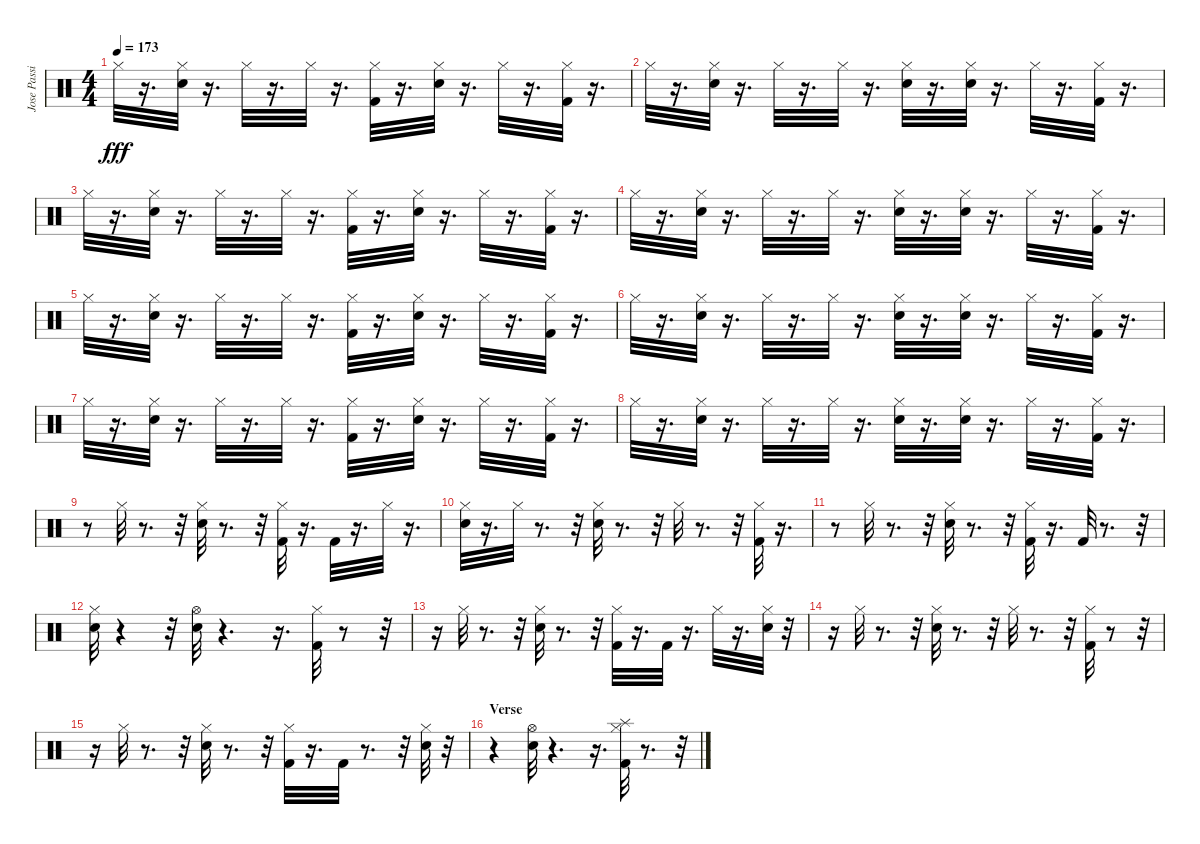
\track ("Jose Passilas-Drums" "Jose Passi") {instrument percussion}
\staff {score}
\articulation defaults
\ts (4 4)
\tempo 173
\clef neutral
\ks c "Hi-Hat (closed)".32{dy fff}
r.16{d} ("Hi-Hat (closed)" "Electric Snare (hit)").32 r.16{d} "Hi-Hat (closed)".32 r.16{d} "Hi-Hat (closed)".32 r.16{d} ("Hi-Hat (closed)" "Kick (hit) 2").32 r.16{d} ("Hi-Hat (closed)" "Electric Snare (hit)").32 r.16{d} "Hi-Hat (closed)".32 r.16{d} ("Hi-Hat (closed)" "Kick (hit) 2").32 r.16{d} |
"Hi-Hat (closed)".32 r.16{d} ("Hi-Hat (closed)" "Electric Snare (hit)").32 r.16{d} "Hi-Hat (closed)".32 r.16{d} "Hi-Hat (closed)".32 r.16{d} ("Hi-Hat (closed)" "Electric Snare (hit)").32 r.16{d} ("Hi-Hat (closed)" "Electric Snare (hit)").32 r.16{d} "Hi-Hat (closed)".32 r.16{d} ("Hi-Hat (closed)" "Kick (hit) 2").32 r.16{d} |
"Hi-Hat (closed)".32 r.16{d} ("Electric Snare (hit)" "Hi-Hat (closed)").32 r.16{d} "Hi-Hat (closed)".32 r.16{d} "Hi-Hat (closed)".32 r.16{d} ("Kick (hit) 2" "Hi-Hat (closed)").32 r.16{d} ("Electric Snare (hit)" "Hi-Hat (closed)").32 r.16{d} "Hi-Hat (closed)".32 r.16{d} ("Kick (hit) 2" "Hi-Hat (closed)").32 r.16{d} |
"Hi-Hat (closed)".32 r.16{d} ("Electric Snare (hit)" "Hi-Hat (closed)").32 r.16{d} "Hi-Hat (closed)".32 r.16{d} "Hi-Hat (closed)".32 r.16{d} ("Electric Snare (hit)" "Hi-Hat (closed)").32 r.16{d} ("Electric Snare (hit)" "Hi-Hat (closed)").32 r.16{d} "Hi-Hat (closed)".32 r.16{d} ("Kick (hit) 2" "Hi-Hat (closed)").32 r.16{d} |
"Hi-Hat (closed)".32 r.16{d} ("Electric Snare (hit)" "Hi-Hat (closed)").32 r.16{d} "Hi-Hat (closed)".32 r.16{d} "Hi-Hat (closed)".32 r.16{d} ("Kick (hit) 2" "Hi-Hat (closed)").32 r.16{d} ("Electric Snare (hit)" "Hi-Hat (closed)").32 r.16{d} "Hi-Hat (closed)".32 r.16{d} ("Kick (hit) 2" "Hi-Hat (closed)").32 r.16{d} |
"Hi-Hat (closed)".32 r.16{d} ("Electric Snare (hit)" "Hi-Hat (closed)").32 r.16{d} "Hi-Hat (closed)".32 r.16{d} "Hi-Hat (closed)".32 r.16{d} ("Electric Snare (hit)" "Hi-Hat (closed)").32 r.16{d} ("Electric Snare (hit)" "Hi-Hat (closed)").32 r.16{d} "Hi-Hat (closed)".32 r.16{d} ("Kick (hit) 2" "Hi-Hat (closed)").32 r.16{d} |
"Hi-Hat (closed)".32 r.16{d} ("Hi-Hat (closed)" "Electric Snare (hit)").32 r.16{d} "Hi-Hat (closed)".32 r.16{d} "Hi-Hat (closed)".32 r.16{d} ("Hi-Hat (closed)" "Kick (hit) 2").32 r.16{d} ("Hi-Hat (closed)" "Electric Snare (hit)").32 r.16{d} "Hi-Hat (closed)".32 r.16{d} ("Hi-Hat (closed)" "Kick (hit) 2").32 r.16{d} |
"Hi-Hat (closed)".32 r.16{d} ("Hi-Hat (closed)" "Electric Snare (hit)").32 r.16{d} "Hi-Hat (closed)".32 r.16{d} "Hi-Hat (closed)".32 r.16{d} ("Hi-Hat (closed)" "Electric Snare (hit)").32 r.16{d} ("Hi-Hat (closed)" "Electric Snare (hit)").32 r.16{d} "Hi-Hat (closed)".32 r.16{d} ("Hi-Hat (closed)" "Kick (hit) 2").32 r.16{d} |
r.8 "Hi-Hat (closed)".32 r.8{d} r.32 ("Hi-Hat (closed)" "Electric Snare (hit)").32 r.8{d} r.32 ("Hi-Hat (closed)" "Kick (hit) 2").32 r.16{d} "Kick (hit) 2".32 r.16{d} "Hi-Hat (closed)".32 r.16{d} |
("Hi-Hat (closed)" "Electric Snare (hit)").32 r.16{d} "Hi-Hat (closed)".32 r.8{d} r.32 ("Hi-Hat (closed)" "Electric Snare (hit)").32 r.8{d} r.32 "Hi-Hat (closed)".32 r.8{d} r.32 ("Hi-Hat (closed)" "Kick (hit) 2").32 r.16{d} |
r.8 "Hi-Hat (closed)".32 r.8{d} r.32 ("Hi-Hat (closed)" "Electric Snare (hit)").32 r.8{d} r.32 ("Hi-Hat (closed)" "Kick (hit) 2").32 r.16{d} "Kick (hit) 2".32 r.8{d} r.32 |
("Hi-Hat (closed)" "Electric Snare (hit)").32 r.4 r.32 ("Hi-Hat (open)" "Electric Snare (hit)").32 r.4{d} r.16{d} ("Kick (hit) 2" "Hi-Hat (closed)").32 r.8 r.32 |
r.16 "Hi-Hat (closed)".32 r.8{d} r.32 ("Electric Snare (hit)" "Hi-Hat (closed)").32 r.8{d} r.32 ("Kick (hit) 2" "Hi-Hat (closed)").32 r.16{d} "Kick (hit) 2".32 r.16{d} "Hi-Hat (closed)".32 r.16{d} ("Electric Snare (hit)" "Hi-Hat (closed)").32 r.32 |
r.16 "Hi-Hat (closed)".32 r.8{d} r.32 ("Electric Snare (hit)" "Hi-Hat (closed)").32 r.8{d} r.32 "Hi-Hat (closed)".32 r.8{d} r.32 ("Kick (hit) 2" "Hi-Hat (closed)").32 r.8 r.32 |
r.16 "Hi-Hat (closed)".32 r.8{d} r.32 ("Electric Snare (hit)" "Hi-Hat (closed)").32 r.8{d} r.32 ("Kick (hit) 2" "Hi-Hat (closed)").32 r.16{d} "Kick (hit) 2".32 r.8{d} r.32 ("Electric Snare (hit)" "Hi-Hat (closed)").32 r.32 |
\section ("" "Verse")
r.4 ("Electric Snare (hit)" "Hi-Hat (open)").32 r.4{d} r.16{d} ("Kick (hit) 2" "Hi-Hat (closed)" "Splash (hit)").32 r.8{d} r.32
